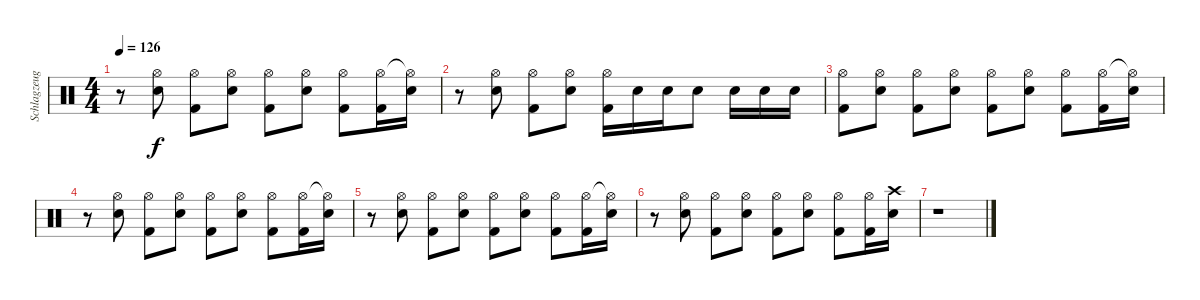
\track ("Schlagzeug - Bela" "Schlagzeug") {instrument percussion}
\staff {score}
\articulation defaults
\ts (4 4)
\tempo 126
\clef neutral
\ks c
r.8{dy f} ("Snare (hit) 2" "Hi-Hat (open)").8 ("Kick (hit) 2" "Hi-Hat (open)").8 ("Snare (hit) 2" "Hi-Hat (open)").8 ("Kick (hit) 2" "Hi-Hat (open)").8 ("Snare (hit) 2" "Hi-Hat (open)").8 ("Kick (hit) 2" "Hi-Hat (open)").8 ("Kick (hit) 2" "Hi-Hat (open)").16 ("Snare (hit) 2" "Hi-Hat (open)"{t}).16 |
r.8 ("Snare (hit) 2" "Hi-Hat (open)").8 ("Kick (hit) 2" "Hi-Hat (open)").8 ("Snare (hit) 2" "Hi-Hat (open)").8 ("Kick (hit) 2" "Hi-Hat (open)").16 "Snare (hit) 2".16 "Snare (hit) 2".16 "Snare (hit) 2".8 "Snare (hit) 2".16 "Snare (hit) 2".16 "Snare (hit) 2".16 |
("Kick (hit) 2" "Hi-Hat (open)").8 ("Snare (hit) 2" "Hi-Hat (open)").8 ("Kick (hit) 2" "Hi-Hat (open)").8 ("Snare (hit) 2" "Hi-Hat (open)").8 ("Kick (hit) 2" "Hi-Hat (open)").8 ("Snare (hit) 2" "Hi-Hat (open)").8 ("Kick (hit) 2" "Hi-Hat (open)").8 ("Kick (hit) 2" "Hi-Hat (open)").16 ("Snare (hit) 2" "Hi-Hat (open)"{t}).16 |
r.8 ("Snare (hit) 2" "Hi-Hat (open)").8 ("Kick (hit) 2" "Hi-Hat (open)").8 ("Snare (hit) 2" "Hi-Hat (open)").8 ("Kick (hit) 2" "Hi-Hat (open)").8 ("Snare (hit) 2" "Hi-Hat (open)").8 ("Kick (hit) 2" "Hi-Hat (open)").8 ("Kick (hit) 2" "Hi-Hat (open)").16 ("Snare (hit) 2" "Hi-Hat (open)"{t}).16 |
r.8 ("Snare (hit) 2" "Hi-Hat (open)").8 ("Kick (hit) 2" "Hi-Hat (open)").8 ("Snare (hit) 2" "Hi-Hat (open)").8 ("Kick (hit) 2" "Hi-Hat (open)").8 ("Snare (hit) 2" "Hi-Hat (open)").8 ("Kick (hit) 2" "Hi-Hat (open)").8 ("Kick (hit) 2" "Hi-Hat (open)").16 ("Snare (hit) 2" "Hi-Hat (open)"{t}).16 |
r.8 ("Snare (hit) 2" "Hi-Hat (open)").8 ("Kick (hit) 2" "Hi-Hat (open)").8 ("Snare (hit) 2" "Hi-Hat (open)").8 ("Kick (hit) 2" "Hi-Hat (open)").8 ("Snare (hit) 2" "Hi-Hat (open)").8 ("Kick (hit) 2" "Hi-Hat (open)").8 ("Kick (hit) 2" "Hi-Hat (open)").16 ("Crash high (hit)" "Snare (hit) 2").16 |
r.1
